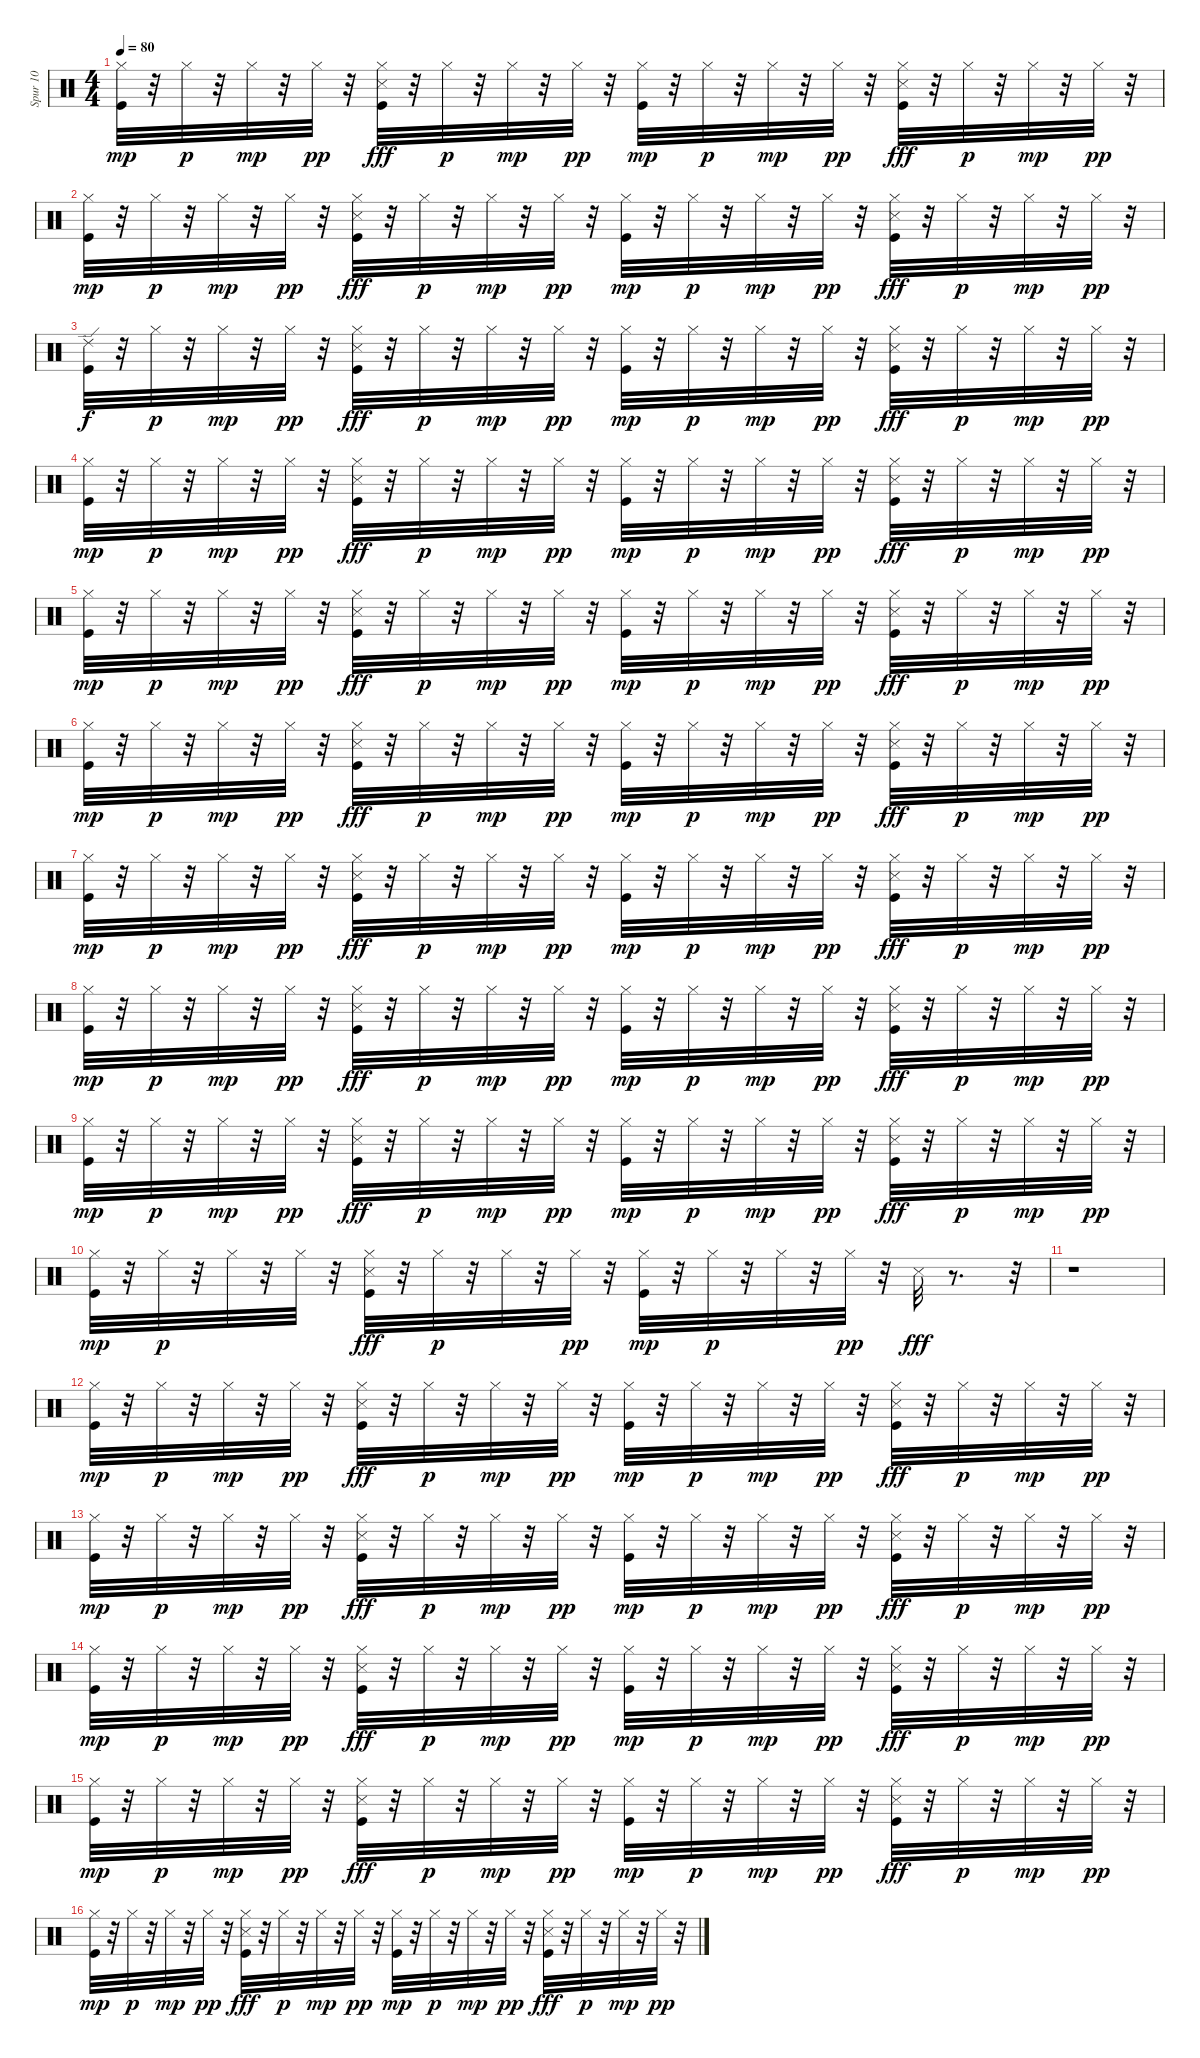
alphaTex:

\track ("Spur 10" "Spur 10") {instrument percussion}
\staff {score}
\articulation defaults
\ts (4 4)
\tempo 80
\clef neutral
\ks c
("Hi-Hat (closed)" "Kick (hit)").32{dy mp} r.32 "Hi-Hat (closed)".32{dy p} r.32 "Hi-Hat (closed)".32{dy mp} r.32 "Hi-Hat (closed)".32{dy pp} r.32 ("Hi-Hat (closed)" "Snare (side stick) 3" "Kick (hit)").32{dy fff} r.32 "Hi-Hat (closed)".32{dy p} r.32 "Hi-Hat (closed)".32{dy mp} r.32 "Hi-Hat (closed)".32{dy pp} r.32 ("Hi-Hat (closed)" "Kick (hit)").32{dy mp} r.32 "Hi-Hat (closed)".32{dy p} r.32 "Hi-Hat (closed)".32{dy mp} r.32 "Hi-Hat (closed)".32{dy pp} r.32 ("Hi-Hat (closed)" "Snare (side stick) 3" "Kick (hit)").32{dy fff} r.32 "Hi-Hat (closed)".32{dy p} r.32 "Hi-Hat (closed)".32{dy mp} r.32 "Hi-Hat (closed)".32{dy pp} r.32 |
("Hi-Hat (closed)" "Kick (hit)").32{dy mp} r.32 "Hi-Hat (closed)".32{dy p} r.32 "Hi-Hat (closed)".32{dy mp} r.32 "Hi-Hat (closed)".32{dy pp} r.32 ("Hi-Hat (closed)" "Snare (side stick) 3" "Kick (hit)").32{dy fff} r.32 "Hi-Hat (closed)".32{dy p} r.32 "Hi-Hat (closed)".32{dy mp} r.32 "Hi-Hat (closed)".32{dy pp} r.32 ("Hi-Hat (closed)" "Kick (hit)").32{dy mp} r.32 "Hi-Hat (closed)".32{dy p} r.32 "Hi-Hat (closed)".32{dy mp} r.32 "Hi-Hat (closed)".32{dy pp} r.32 ("Hi-Hat (closed)" "Snare (side stick) 3" "Kick (hit)").32{dy fff} r.32 "Hi-Hat (closed)".32{dy p} r.32 "Hi-Hat (closed)".32{dy mp} r.32 "Hi-Hat (closed)".32{dy pp} r.32 |
("Ride (edge) 2" "Kick (hit)").32{dy f} r.32 "Hi-Hat (closed)".32{dy p} r.32 "Hi-Hat (closed)".32{dy mp} r.32 "Hi-Hat (closed)".32{dy pp} r.32 ("Hi-Hat (closed)" "Snare (side stick) 3" "Kick (hit)").32{dy fff} r.32 "Hi-Hat (closed)".32{dy p} r.32 "Hi-Hat (closed)".32{dy mp} r.32 "Hi-Hat (closed)".32{dy pp} r.32 ("Hi-Hat (closed)" "Kick (hit)").32{dy mp} r.32 "Hi-Hat (closed)".32{dy p} r.32 "Hi-Hat (closed)".32{dy mp} r.32 "Hi-Hat (closed)".32{dy pp} r.32 ("Hi-Hat (closed)" "Snare (side stick) 3" "Kick (hit)").32{dy fff} r.32 "Hi-Hat (closed)".32{dy p} r.32 "Hi-Hat (closed)".32{dy mp} r.32 "Hi-Hat (closed)".32{dy pp} r.32 |
("Hi-Hat (closed)" "Kick (hit)").32{dy mp} r.32 "Hi-Hat (closed)".32{dy p} r.32 "Hi-Hat (closed)".32{dy mp} r.32 "Hi-Hat (closed)".32{dy pp} r.32 ("Hi-Hat (closed)" "Snare (side stick) 3" "Kick (hit)").32{dy fff} r.32 "Hi-Hat (closed)".32{dy p} r.32 "Hi-Hat (closed)".32{dy mp} r.32 "Hi-Hat (closed)".32{dy pp} r.32 ("Hi-Hat (closed)" "Kick (hit)").32{dy mp} r.32 "Hi-Hat (closed)".32{dy p} r.32 "Hi-Hat (closed)".32{dy mp} r.32 "Hi-Hat (closed)".32{dy pp} r.32 ("Hi-Hat (closed)" "Snare (side stick) 3" "Kick (hit)").32{dy fff} r.32 "Hi-Hat (closed)".32{dy p} r.32 "Hi-Hat (closed)".32{dy mp} r.32 "Hi-Hat (closed)".32{dy pp} r.32 |
("Hi-Hat (closed)" "Kick (hit)").32{dy mp} r.32 "Hi-Hat (closed)".32{dy p} r.32 "Hi-Hat (closed)".32{dy mp} r.32 "Hi-Hat (closed)".32{dy pp} r.32 ("Hi-Hat (closed)" "Snare (side stick) 3" "Kick (hit)").32{dy fff} r.32 "Hi-Hat (closed)".32{dy p} r.32 "Hi-Hat (closed)".32{dy mp} r.32 "Hi-Hat (closed)".32{dy pp} r.32 ("Hi-Hat (closed)" "Kick (hit)").32{dy mp} r.32 "Hi-Hat (closed)".32{dy p} r.32 "Hi-Hat (closed)".32{dy mp} r.32 "Hi-Hat (closed)".32{dy pp} r.32 ("Hi-Hat (closed)" "Snare (side stick) 3" "Kick (hit)").32{dy fff} r.32 "Hi-Hat (closed)".32{dy p} r.32 "Hi-Hat (closed)".32{dy mp} r.32 "Hi-Hat (closed)".32{dy pp} r.32 |
("Hi-Hat (closed)" "Kick (hit)").32{dy mp} r.32 "Hi-Hat (closed)".32{dy p} r.32 "Hi-Hat (closed)".32{dy mp} r.32 "Hi-Hat (closed)".32{dy pp} r.32 ("Hi-Hat (closed)" "Snare (side stick) 3" "Kick (hit)").32{dy fff} r.32 "Hi-Hat (closed)".32{dy p} r.32 "Hi-Hat (closed)".32{dy mp} r.32 "Hi-Hat (closed)".32{dy pp} r.32 ("Hi-Hat (closed)" "Kick (hit)").32{dy mp} r.32 "Hi-Hat (closed)".32{dy p} r.32 "Hi-Hat (closed)".32{dy mp} r.32 "Hi-Hat (closed)".32{dy pp} r.32 ("Hi-Hat (closed)" "Snare (side stick) 3" "Kick (hit)").32{dy fff} r.32 "Hi-Hat (closed)".32{dy p} r.32 "Hi-Hat (closed)".32{dy mp} r.32 "Hi-Hat (closed)".32{dy pp} r.32 |
("Hi-Hat (closed)" "Kick (hit)").32{dy mp} r.32 "Hi-Hat (closed)".32{dy p} r.32 "Hi-Hat (closed)".32{dy mp} r.32 "Hi-Hat (closed)".32{dy pp} r.32 ("Hi-Hat (closed)" "Snare (side stick) 3" "Kick (hit)").32{dy fff} r.32 "Hi-Hat (closed)".32{dy p} r.32 "Hi-Hat (closed)".32{dy mp} r.32 "Hi-Hat (closed)".32{dy pp} r.32 ("Hi-Hat (closed)" "Kick (hit)").32{dy mp} r.32 "Hi-Hat (closed)".32{dy p} r.32 "Hi-Hat (closed)".32{dy mp} r.32 "Hi-Hat (closed)".32{dy pp} r.32 ("Hi-Hat (closed)" "Snare (side stick) 3" "Kick (hit)").32{dy fff} r.32 "Hi-Hat (closed)".32{dy p} r.32 "Hi-Hat (closed)".32{dy mp} r.32 "Hi-Hat (closed)".32{dy pp} r.32 |
("Hi-Hat (closed)" "Kick (hit)").32{dy mp} r.32 "Hi-Hat (closed)".32{dy p} r.32 "Hi-Hat (closed)".32{dy mp} r.32 "Hi-Hat (closed)".32{dy pp} r.32 ("Hi-Hat (closed)" "Snare (side stick) 3" "Kick (hit)").32{dy fff} r.32 "Hi-Hat (closed)".32{dy p} r.32 "Hi-Hat (closed)".32{dy mp} r.32 "Hi-Hat (closed)".32{dy pp} r.32 ("Hi-Hat (closed)" "Kick (hit)").32{dy mp} r.32 "Hi-Hat (closed)".32{dy p} r.32 "Hi-Hat (closed)".32{dy mp} r.32 "Hi-Hat (closed)".32{dy pp} r.32 ("Hi-Hat (closed)" "Snare (side stick) 3" "Kick (hit)").32{dy fff} r.32 "Hi-Hat (closed)".32{dy p} r.32 "Hi-Hat (closed)".32{dy mp} r.32 "Hi-Hat (closed)".32{dy pp} r.32 |
("Hi-Hat (closed)" "Kick (hit)").32{dy mp} r.32 "Hi-Hat (closed)".32{dy p} r.32 "Hi-Hat (closed)".32{dy mp} r.32 "Hi-Hat (closed)".32{dy pp} r.32 ("Hi-Hat (closed)" "Snare (side stick) 3" "Kick (hit)").32{dy fff} r.32 "Hi-Hat (closed)".32{dy p} r.32 "Hi-Hat (closed)".32{dy mp} r.32 "Hi-Hat (closed)".32{dy pp} r.32 ("Hi-Hat (closed)" "Kick (hit)").32{dy mp} r.32 "Hi-Hat (closed)".32{dy p} r.32 "Hi-Hat (closed)".32{dy mp} r.32 "Hi-Hat (closed)".32{dy pp} r.32 ("Hi-Hat (closed)" "Snare (side stick) 3" "Kick (hit)").32{dy fff} r.32 "Hi-Hat (closed)".32{dy p} r.32 "Hi-Hat (closed)".32{dy mp} r.32 "Hi-Hat (closed)".32{dy pp} r.32 |
("Hi-Hat (closed)" "Kick (hit)").32{dy mp} r.32 "Hi-Hat (closed)".32{dy p} r.32 "Hi-Hat (closed)".32 r.32 "Hi-Hat (closed)".32 r.32 ("Hi-Hat (closed)" "Snare (side stick) 3" "Kick (hit)").32{dy fff} r.32 "Hi-Hat (closed)".32{dy p} r.32 "Hi-Hat (closed)".32 r.32 "Hi-Hat (closed)".32{dy pp} r.32 ("Hi-Hat (closed)" "Kick (hit)").32{dy mp} r.32 "Hi-Hat (closed)".32{dy p} r.32 "Hi-Hat (closed)".32 r.32 "Hi-Hat (closed)".32{dy pp} r.32 "Snare (side stick) 3".32{dy fff} r.8{d} r.32 |
r.1 |
("Hi-Hat (closed)" "Kick (hit)").32{dy mp} r.32 "Hi-Hat (closed)".32{dy p} r.32 "Hi-Hat (closed)".32{dy mp} r.32 "Hi-Hat (closed)".32{dy pp} r.32 ("Hi-Hat (closed)" "Snare (side stick) 3" "Kick (hit)").32{dy fff} r.32 "Hi-Hat (closed)".32{dy p} r.32 "Hi-Hat (closed)".32{dy mp} r.32 "Hi-Hat (closed)".32{dy pp} r.32 ("Hi-Hat (closed)" "Kick (hit)").32{dy mp} r.32 "Hi-Hat (closed)".32{dy p} r.32 "Hi-Hat (closed)".32{dy mp} r.32 "Hi-Hat (closed)".32{dy pp} r.32 ("Hi-Hat (closed)" "Snare (side stick) 3" "Kick (hit)").32{dy fff} r.32 "Hi-Hat (closed)".32{dy p} r.32 "Hi-Hat (closed)".32{dy mp} r.32 "Hi-Hat (closed)".32{dy pp} r.32 |
("Hi-Hat (closed)" "Kick (hit)").32{dy mp} r.32 "Hi-Hat (closed)".32{dy p} r.32 "Hi-Hat (closed)".32{dy mp} r.32 "Hi-Hat (closed)".32{dy pp} r.32 ("Hi-Hat (closed)" "Snare (side stick) 3" "Kick (hit)").32{dy fff} r.32 "Hi-Hat (closed)".32{dy p} r.32 "Hi-Hat (closed)".32{dy mp} r.32 "Hi-Hat (closed)".32{dy pp} r.32 ("Hi-Hat (closed)" "Kick (hit)").32{dy mp} r.32 "Hi-Hat (closed)".32{dy p} r.32 "Hi-Hat (closed)".32{dy mp} r.32 "Hi-Hat (closed)".32{dy pp} r.32 ("Hi-Hat (closed)" "Snare (side stick) 3" "Kick (hit)").32{dy fff} r.32 "Hi-Hat (closed)".32{dy p} r.32 "Hi-Hat (closed)".32{dy mp} r.32 "Hi-Hat (closed)".32{dy pp} r.32 |
("Hi-Hat (closed)" "Kick (hit)").32{dy mp} r.32 "Hi-Hat (closed)".32{dy p} r.32 "Hi-Hat (closed)".32{dy mp} r.32 "Hi-Hat (closed)".32{dy pp} r.32 ("Hi-Hat (closed)" "Snare (side stick) 3" "Kick (hit)").32{dy fff} r.32 "Hi-Hat (closed)".32{dy p} r.32 "Hi-Hat (closed)".32{dy mp} r.32 "Hi-Hat (closed)".32{dy pp} r.32 ("Hi-Hat (closed)" "Kick (hit)").32{dy mp} r.32 "Hi-Hat (closed)".32{dy p} r.32 "Hi-Hat (closed)".32{dy mp} r.32 "Hi-Hat (closed)".32{dy pp} r.32 ("Hi-Hat (closed)" "Snare (side stick) 3" "Kick (hit)").32{dy fff} r.32 "Hi-Hat (closed)".32{dy p} r.32 "Hi-Hat (closed)".32{dy mp} r.32 "Hi-Hat (closed)".32{dy pp} r.32 |
("Hi-Hat (closed)" "Kick (hit)").32{dy mp} r.32 "Hi-Hat (closed)".32{dy p} r.32 "Hi-Hat (closed)".32{dy mp} r.32 "Hi-Hat (closed)".32{dy pp} r.32 ("Hi-Hat (closed)" "Snare (side stick) 3" "Kick (hit)").32{dy fff} r.32 "Hi-Hat (closed)".32{dy p} r.32 "Hi-Hat (closed)".32{dy mp} r.32 "Hi-Hat (closed)".32{dy pp} r.32 ("Hi-Hat (closed)" "Kick (hit)").32{dy mp} r.32 "Hi-Hat (closed)".32{dy p} r.32 "Hi-Hat (closed)".32{dy mp} r.32 "Hi-Hat (closed)".32{dy pp} r.32 ("Hi-Hat (closed)" "Snare (side stick) 3" "Kick (hit)").32{dy fff} r.32 "Hi-Hat (closed)".32{dy p} r.32 "Hi-Hat (closed)".32{dy mp} r.32 "Hi-Hat (closed)".32{dy pp} r.32 |
("Hi-Hat (closed)" "Kick (hit)").32{dy mp} r.32 "Hi-Hat (closed)".32{dy p} r.32 "Hi-Hat (closed)".32{dy mp} r.32 "Hi-Hat (closed)".32{dy pp} r.32 ("Hi-Hat (closed)" "Snare (side stick) 3" "Kick (hit)").32{dy fff} r.32 "Hi-Hat (closed)".32{dy p} r.32 "Hi-Hat (closed)".32{dy mp} r.32 "Hi-Hat (closed)".32{dy pp} r.32 ("Hi-Hat (closed)" "Kick (hit)").32{dy mp} r.32 "Hi-Hat (closed)".32{dy p} r.32 "Hi-Hat (closed)".32{dy mp} r.32 "Hi-Hat (closed)".32{dy pp} r.32 ("Hi-Hat (closed)" "Snare (side stick) 3" "Kick (hit)").32{dy fff} r.32 "Hi-Hat (closed)".32{dy p} r.32 "Hi-Hat (closed)".32{dy mp} r.32 "Hi-Hat (closed)".32{dy pp} r.32
